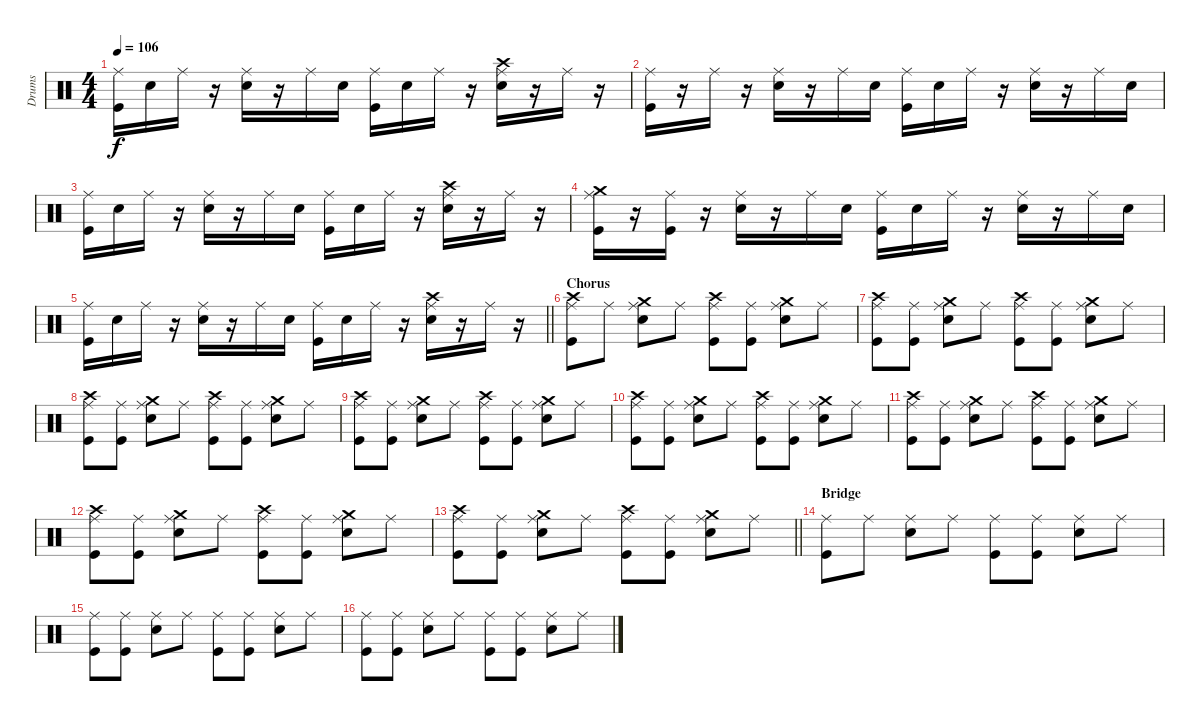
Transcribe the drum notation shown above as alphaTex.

\track ("Drums" "Drums") {instrument percussion}
\staff {score}
\articulation defaults
\ts (4 4)
\tempo 106
\clef neutral
\ks c
("Ride (middle)" "Kick (hit)").16{dy f} "Electric Snare (hit)".16 "Ride (middle)".16 r.16 ("Ride (middle)" "Electric Snare (hit)").16 r.16 "Ride (middle)".16 "Electric Snare (hit)".16 ("Ride (middle)" "Kick (hit)").16 "Electric Snare (hit)".16 "Ride (middle)".16 r.16 ("Crash high (hit)" "Ride (middle)" "Electric Snare (hit)").16 r.16 "Ride (middle)".16 r.16 |
("Ride (middle)" "Kick (hit)").16 r.16 "Ride (middle)".16 r.16 ("Ride (middle)" "Electric Snare (hit)").16 r.16 "Ride (middle)".16 "Electric Snare (hit)".16 ("Ride (middle)" "Kick (hit)").16 "Electric Snare (hit)".16 "Ride (middle)".16 r.16 ("Ride (middle)" "Electric Snare (hit)").16 r.16 "Ride (middle)".16 "Electric Snare (hit)".16 |
("Ride (middle)" "Kick (hit)").16 "Electric Snare (hit)".16 "Ride (middle)".16 r.16 ("Ride (middle)" "Electric Snare (hit)").16 r.16 "Ride (middle)".16 "Electric Snare (hit)".16 ("Ride (middle)" "Kick (hit)").16 "Electric Snare (hit)".16 "Ride (middle)".16 r.16 ("Crash high (hit)" "Ride (middle)" "Electric Snare (hit)").16 r.16 "Ride (middle)".16 r.16 |
("Crash medium (hit)" "Ride (middle)" "Kick (hit)").16 r.16 ("Ride (middle)" "Kick (hit)").16 r.16 ("Ride (middle)" "Electric Snare (hit)").16 r.16 "Ride (middle)".16 "Electric Snare (hit)".16 ("Ride (middle)" "Kick (hit)").16 "Electric Snare (hit)".16 "Ride (middle)".16 r.16 ("Ride (middle)" "Electric Snare (hit)").16 r.16 "Ride (middle)".16 "Electric Snare (hit)".16 |
\barLineRight lightlight
("Ride (middle)" "Kick (hit)").16 "Electric Snare (hit)".16 "Ride (middle)".16 r.16 ("Ride (middle)" "Electric Snare (hit)").16 r.16 "Ride (middle)".16 "Electric Snare (hit)".16 ("Ride (middle)" "Kick (hit)").16 "Electric Snare (hit)".16 "Ride (middle)".16 r.16 ("Crash high (hit)" "Ride (middle)" "Electric Snare (hit)").16 r.16 "Ride (middle)".16 r.16 |
\section ("" "Chorus")
("Crash high (hit)" "Ride (middle)" "Kick (hit)").8 "Ride (middle)".8 ("Crash medium (hit)" "Ride (middle)" "Electric Snare (hit)").8 "Ride (middle)".8 ("Crash high (hit)" "Ride (middle)" "Kick (hit)").8 ("Ride (middle)" "Kick (hit)").8 ("Crash medium (hit)" "Ride (middle)" "Electric Snare (hit)").8 "Ride (middle)".8 |
("Crash high (hit)" "Ride (middle)" "Kick (hit)").8 ("Ride (middle)" "Kick (hit)").8 ("Crash medium (hit)" "Ride (middle)" "Electric Snare (hit)").8 "Ride (middle)".8 ("Crash high (hit)" "Ride (middle)" "Kick (hit)").8 ("Ride (middle)" "Kick (hit)").8 ("Crash medium (hit)" "Ride (middle)" "Electric Snare (hit)").8 "Ride (middle)".8 |
("Crash high (hit)" "Ride (middle)" "Kick (hit)").8 ("Ride (middle)" "Kick (hit)").8 ("Crash medium (hit)" "Ride (middle)" "Electric Snare (hit)").8 "Ride (middle)".8 ("Crash high (hit)" "Ride (middle)" "Kick (hit)").8 ("Ride (middle)" "Kick (hit)").8 ("Crash medium (hit)" "Ride (middle)" "Electric Snare (hit)").8 "Ride (middle)".8 |
("Crash high (hit)" "Ride (middle)" "Kick (hit)").8 ("Ride (middle)" "Kick (hit)").8 ("Crash medium (hit)" "Ride (middle)" "Electric Snare (hit)").8 "Ride (middle)".8 ("Crash high (hit)" "Ride (middle)" "Kick (hit)").8 ("Ride (middle)" "Kick (hit)").8 ("Crash medium (hit)" "Ride (middle)" "Electric Snare (hit)").8 "Ride (middle)".8 |
("Crash high (hit)" "Ride (middle)" "Kick (hit)").8 ("Ride (middle)" "Kick (hit)").8 ("Crash medium (hit)" "Ride (middle)" "Electric Snare (hit)").8 "Ride (middle)".8 ("Crash high (hit)" "Ride (middle)" "Kick (hit)").8 ("Ride (middle)" "Kick (hit)").8 ("Crash medium (hit)" "Ride (middle)" "Electric Snare (hit)").8 "Ride (middle)".8 |
("Crash high (hit)" "Ride (middle)" "Kick (hit)").8 ("Ride (middle)" "Kick (hit)").8 ("Crash medium (hit)" "Ride (middle)" "Electric Snare (hit)").8 "Ride (middle)".8 ("Crash high (hit)" "Ride (middle)" "Kick (hit)").8 ("Ride (middle)" "Kick (hit)").8 ("Crash medium (hit)" "Ride (middle)" "Electric Snare (hit)").8 "Ride (middle)".8 |
("Crash high (hit)" "Ride (middle)" "Kick (hit)").8 ("Ride (middle)" "Kick (hit)").8 ("Crash medium (hit)" "Ride (middle)" "Electric Snare (hit)").8 "Ride (middle)".8 ("Crash high (hit)" "Ride (middle)" "Kick (hit)").8 ("Ride (middle)" "Kick (hit)").8 ("Crash medium (hit)" "Ride (middle)" "Electric Snare (hit)").8 "Ride (middle)".8 |
\barLineRight lightlight
("Crash high (hit)" "Ride (middle)" "Kick (hit)").8 ("Ride (middle)" "Kick (hit)").8 ("Crash medium (hit)" "Ride (middle)" "Electric Snare (hit)").8 "Ride (middle)".8 ("Crash high (hit)" "Ride (middle)" "Kick (hit)").8 ("Ride (middle)" "Kick (hit)").8 ("Crash medium (hit)" "Ride (middle)" "Electric Snare (hit)").8 "Ride (middle)".8 |
\section ("" "Bridge")
("Ride (middle)" "Kick (hit)").8 "Ride (middle)".8 ("Ride (middle)" "Electric Snare (hit)").8 "Ride (middle)".8 ("Ride (middle)" "Kick (hit)").8 ("Ride (middle)" "Kick (hit)").8 ("Ride (middle)" "Electric Snare (hit)").8 "Ride (middle)".8 |
("Ride (middle)" "Kick (hit)").8 ("Ride (middle)" "Kick (hit)").8 ("Ride (middle)" "Electric Snare (hit)").8 "Ride (middle)".8 ("Ride (middle)" "Kick (hit)").8 ("Ride (middle)" "Kick (hit)").8 ("Ride (middle)" "Electric Snare (hit)").8 "Ride (middle)".8 |
("Ride (middle)" "Kick (hit)").8 ("Ride (middle)" "Kick (hit)").8 ("Ride (middle)" "Electric Snare (hit)").8 "Ride (middle)".8 ("Ride (middle)" "Kick (hit)").8 ("Ride (middle)" "Kick (hit)").8 ("Ride (middle)" "Electric Snare (hit)").8 "Ride (middle)".8
